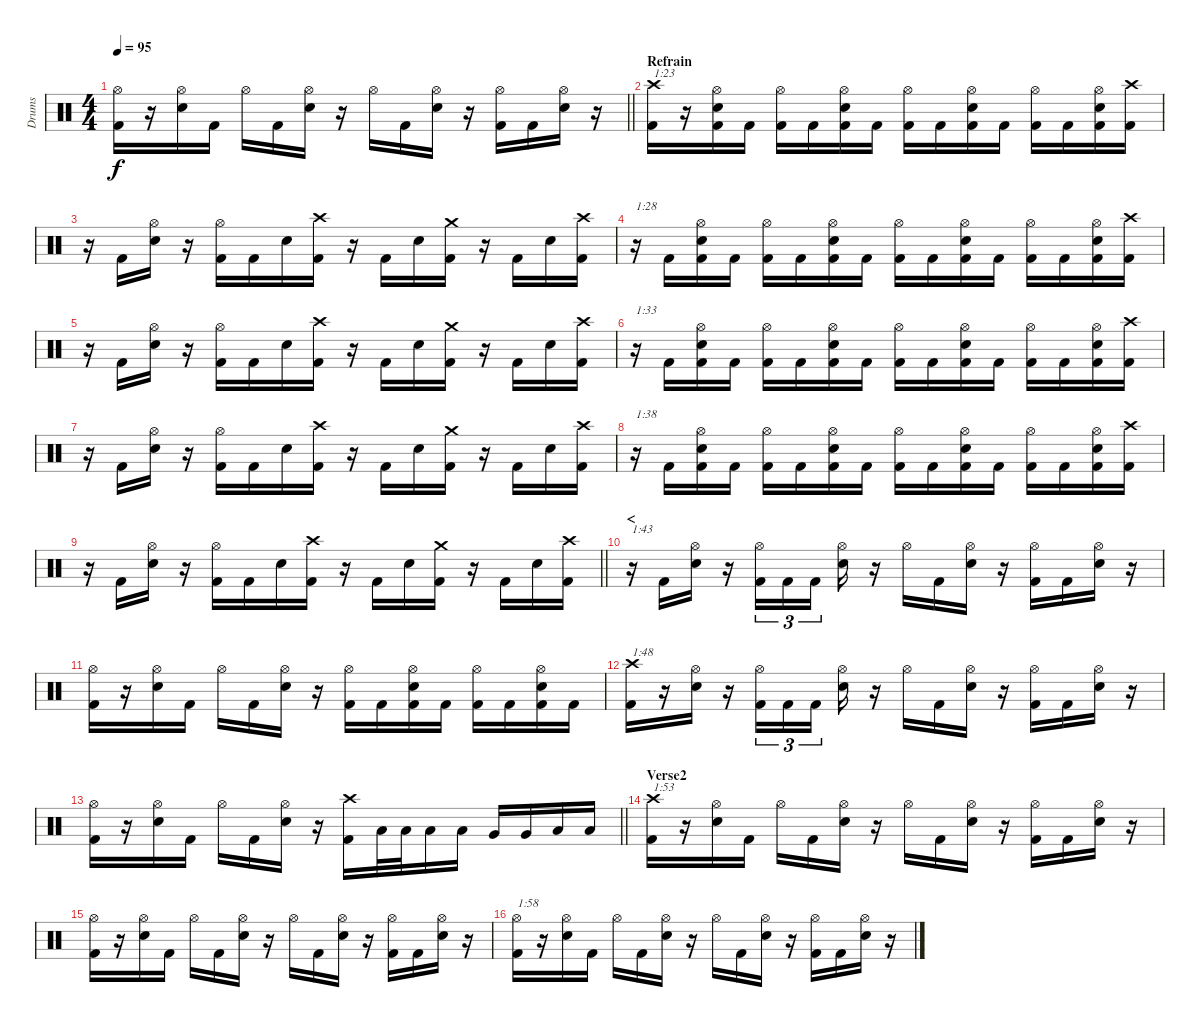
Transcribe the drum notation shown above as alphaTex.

\track ("Drums" "Drums") {instrument percussion}
\staff {score}
\articulation defaults
\ts (4 4)
\tempo 95
\clef neutral
\barLineRight lightlight
\ks c
("Hi-Hat (open)" "Kick (hit) 2").16{dy f} r.16 ("Hi-Hat (open)" "Electric Snare (hit)").16 "Kick (hit) 2".16 "Hi-Hat (open)".16 "Kick (hit) 2".16 ("Hi-Hat (open)" "Electric Snare (hit)").16 r.16 "Hi-Hat (open)".16 "Kick (hit) 2".16 ("Hi-Hat (open)" "Electric Snare (hit)").16 r.16 ("Hi-Hat (open)" "Kick (hit) 2").16 "Kick (hit) 2".16 ("Hi-Hat (open)" "Electric Snare (hit)").16 r.16 |
\section ("" "Refrain")
("Crash high (hit)" "Kick (hit) 2").16{txt "1:23"} r.16 ("Hi-Hat (open)" "Electric Snare (hit)" "Kick (hit) 2").16 "Kick (hit) 2".16 ("Hi-Hat (open)" "Kick (hit) 2").16 "Kick (hit) 2".16 ("Hi-Hat (open)" "Electric Snare (hit)" "Kick (hit) 2").16 "Kick (hit) 2".16 ("Hi-Hat (open)" "Kick (hit) 2").16 "Kick (hit) 2".16 ("Hi-Hat (open)" "Electric Snare (hit)" "Kick (hit) 2").16 "Kick (hit) 2".16 ("Hi-Hat (open)" "Kick (hit) 2").16 "Kick (hit) 2".16 ("Hi-Hat (open)" "Electric Snare (hit)" "Kick (hit) 2").16 ("Crash high (hit)" "Kick (hit) 2").16 |
r.16 "Kick (hit) 2".16 ("Hi-Hat (open)" "Electric Snare (hit)").16 r.16 ("Hi-Hat (open)" "Kick (hit) 2").16 "Kick (hit) 2".16 "Electric Snare (hit)".16 ("Crash high (hit)" "Kick (hit) 2").16 r.16 "Kick (hit) 2".16 "Electric Snare (hit)".16 ("Crash medium (hit)" "Kick (hit) 2").16 r.16 "Kick (hit) 2".16 "Electric Snare (hit)".16 ("Crash high (hit)" "Kick (hit) 2").16 |
r.16{txt "1:28"} "Kick (hit) 2".16 ("Hi-Hat (open)" "Electric Snare (hit)" "Kick (hit) 2").16 "Kick (hit) 2".16 ("Hi-Hat (open)" "Kick (hit) 2").16 "Kick (hit) 2".16 ("Hi-Hat (open)" "Electric Snare (hit)" "Kick (hit) 2").16 "Kick (hit) 2".16 ("Hi-Hat (open)" "Kick (hit) 2").16 "Kick (hit) 2".16 ("Hi-Hat (open)" "Electric Snare (hit)" "Kick (hit) 2").16 "Kick (hit) 2".16 ("Hi-Hat (open)" "Kick (hit) 2").16 "Kick (hit) 2".16 ("Hi-Hat (open)" "Electric Snare (hit)" "Kick (hit) 2").16 ("Crash high (hit)" "Kick (hit) 2").16 |
r.16 "Kick (hit) 2".16 ("Hi-Hat (open)" "Electric Snare (hit)").16 r.16 ("Hi-Hat (open)" "Kick (hit) 2").16 "Kick (hit) 2".16 "Electric Snare (hit)".16 ("Crash high (hit)" "Kick (hit) 2").16 r.16 "Kick (hit) 2".16 "Electric Snare (hit)".16 ("Crash medium (hit)" "Kick (hit) 2").16 r.16 "Kick (hit) 2".16 "Electric Snare (hit)".16 ("Crash high (hit)" "Kick (hit) 2").16 |
r.16{txt "1:33"} "Kick (hit) 2".16 ("Hi-Hat (open)" "Electric Snare (hit)" "Kick (hit) 2").16 "Kick (hit) 2".16 ("Hi-Hat (open)" "Kick (hit) 2").16 "Kick (hit) 2".16 ("Hi-Hat (open)" "Electric Snare (hit)" "Kick (hit) 2").16 "Kick (hit) 2".16 ("Hi-Hat (open)" "Kick (hit) 2").16 "Kick (hit) 2".16 ("Hi-Hat (open)" "Electric Snare (hit)" "Kick (hit) 2").16 "Kick (hit) 2".16 ("Hi-Hat (open)" "Kick (hit) 2").16 "Kick (hit) 2".16 ("Hi-Hat (open)" "Electric Snare (hit)" "Kick (hit) 2").16 ("Crash high (hit)" "Kick (hit) 2").16 |
r.16 "Kick (hit) 2".16 ("Hi-Hat (open)" "Electric Snare (hit)").16 r.16 ("Hi-Hat (open)" "Kick (hit) 2").16 "Kick (hit) 2".16 "Electric Snare (hit)".16 ("Crash high (hit)" "Kick (hit) 2").16 r.16 "Kick (hit) 2".16 "Electric Snare (hit)".16 ("Crash medium (hit)" "Kick (hit) 2").16 r.16 "Kick (hit) 2".16 "Electric Snare (hit)".16 ("Crash high (hit)" "Kick (hit) 2").16 |
r.16{txt "1:38"} "Kick (hit) 2".16 ("Hi-Hat (open)" "Electric Snare (hit)" "Kick (hit) 2").16 "Kick (hit) 2".16 ("Hi-Hat (open)" "Kick (hit) 2").16 "Kick (hit) 2".16 ("Hi-Hat (open)" "Electric Snare (hit)" "Kick (hit) 2").16 "Kick (hit) 2".16 ("Hi-Hat (open)" "Kick (hit) 2").16 "Kick (hit) 2".16 ("Hi-Hat (open)" "Electric Snare (hit)" "Kick (hit) 2").16 "Kick (hit) 2".16 ("Hi-Hat (open)" "Kick (hit) 2").16 "Kick (hit) 2".16 ("Hi-Hat (open)" "Electric Snare (hit)" "Kick (hit) 2").16 ("Crash high (hit)" "Kick (hit) 2").16 |
\barLineRight lightlight
r.16 "Kick (hit) 2".16 ("Hi-Hat (open)" "Electric Snare (hit)").16 r.16 ("Hi-Hat (open)" "Kick (hit) 2").16 "Kick (hit) 2".16 "Electric Snare (hit)".16 ("Crash high (hit)" "Kick (hit) 2").16 r.16 "Kick (hit) 2".16 "Electric Snare (hit)".16 ("Crash medium (hit)" "Kick (hit) 2").16 r.16 "Kick (hit) 2".16 "Electric Snare (hit)".16 ("Crash high (hit)" "Kick (hit) 2").16 |
\section ("" "<")
r.16{txt "1:43"} "Kick (hit) 2".16 ("Hi-Hat (open)" "Electric Snare (hit)").16 r.16 ("Hi-Hat (open)" "Kick (hit) 2").16{tu (3 2)} "Kick (hit) 2".16{tu (3 2)} "Kick (hit) 2".16{tu (3 2)} ("Hi-Hat (open)" "Electric Snare (hit)").16 r.16 "Hi-Hat (open)".16 "Kick (hit) 2".16 ("Hi-Hat (open)" "Electric Snare (hit)").16 r.16 ("Hi-Hat (open)" "Kick (hit) 2").16 "Kick (hit) 2".16 ("Hi-Hat (open)" "Electric Snare (hit)").16 r.16 |
("Hi-Hat (open)" "Kick (hit) 2").16 r.16 ("Hi-Hat (open)" "Electric Snare (hit)").16 "Kick (hit) 2".16 "Hi-Hat (open)".16 "Kick (hit) 2".16 ("Hi-Hat (open)" "Electric Snare (hit)").16 r.16 ("Hi-Hat (open)" "Kick (hit) 2").16 "Kick (hit) 2".16 ("Hi-Hat (open)" "Electric Snare (hit)" "Kick (hit) 2").16 "Kick (hit) 2".16 ("Hi-Hat (open)" "Kick (hit) 2").16 "Kick (hit) 2".16 ("Hi-Hat (open)" "Electric Snare (hit)" "Kick (hit) 2").16 "Kick (hit) 2".16 |
("Crash high (hit)" "Kick (hit) 2").16{txt "1:48"} r.16 ("Hi-Hat (open)" "Electric Snare (hit)").16 r.16 ("Hi-Hat (open)" "Kick (hit) 2").16{tu (3 2)} "Kick (hit) 2".16{tu (3 2)} "Kick (hit) 2".16{tu (3 2)} ("Hi-Hat (open)" "Electric Snare (hit)").16 r.16 "Hi-Hat (open)".16 "Kick (hit) 2".16 ("Hi-Hat (open)" "Electric Snare (hit)").16 r.16 ("Hi-Hat (open)" "Kick (hit) 2").16 "Kick (hit) 2".16 ("Hi-Hat (open)" "Electric Snare (hit)").16 r.16 |
\barLineRight lightlight
("Hi-Hat (open)" "Kick (hit) 2").16 r.16 ("Hi-Hat (open)" "Electric Snare (hit)").16 "Kick (hit) 2".16 "Hi-Hat (open)".16 "Kick (hit) 2".16 ("Hi-Hat (open)" "Electric Snare (hit)").16 r.16 ("Crash high (hit)" "Kick (hit) 2").16 "Low Tom (hit)".32 "Low Tom (hit)".32 "Low Tom (hit)".16 "Low Tom (hit)".16 "Very Low Tom (hit)".16 "Very Low Tom (hit)".16 "Low Floor Tom (hit)".16 "Low Floor Tom (hit)".16 |
\section ("" "Verse2")
("Crash high (hit)" "Kick (hit) 2").16{txt "1:53"} r.16 ("Hi-Hat (open)" "Electric Snare (hit)").16 "Kick (hit) 2".16 "Hi-Hat (open)".16 "Kick (hit) 2".16 ("Hi-Hat (open)" "Electric Snare (hit)").16 r.16 "Hi-Hat (open)".16 "Kick (hit) 2".16 ("Hi-Hat (open)" "Electric Snare (hit)").16 r.16 ("Hi-Hat (open)" "Kick (hit) 2").16 "Kick (hit) 2".16 ("Hi-Hat (open)" "Electric Snare (hit)").16 r.16 |
("Hi-Hat (open)" "Kick (hit) 2").16 r.16 ("Hi-Hat (open)" "Electric Snare (hit)").16 "Kick (hit) 2".16 "Hi-Hat (open)".16 "Kick (hit) 2".16 ("Hi-Hat (open)" "Electric Snare (hit)").16 r.16 "Hi-Hat (open)".16 "Kick (hit) 2".16 ("Hi-Hat (open)" "Electric Snare (hit)").16 r.16 ("Hi-Hat (open)" "Kick (hit) 2").16 "Kick (hit) 2".16 ("Hi-Hat (open)" "Electric Snare (hit)").16 r.16 |
("Hi-Hat (open)" "Kick (hit) 2").16{txt "1:58"} r.16 ("Hi-Hat (open)" "Electric Snare (hit)").16 "Kick (hit) 2".16 "Hi-Hat (open)".16 "Kick (hit) 2".16 ("Hi-Hat (open)" "Electric Snare (hit)").16 r.16 "Hi-Hat (open)".16 "Kick (hit) 2".16 ("Hi-Hat (open)" "Electric Snare (hit)").16 r.16 ("Hi-Hat (open)" "Kick (hit) 2").16 "Kick (hit) 2".16 ("Hi-Hat (open)" "Electric Snare (hit)").16 r.16
